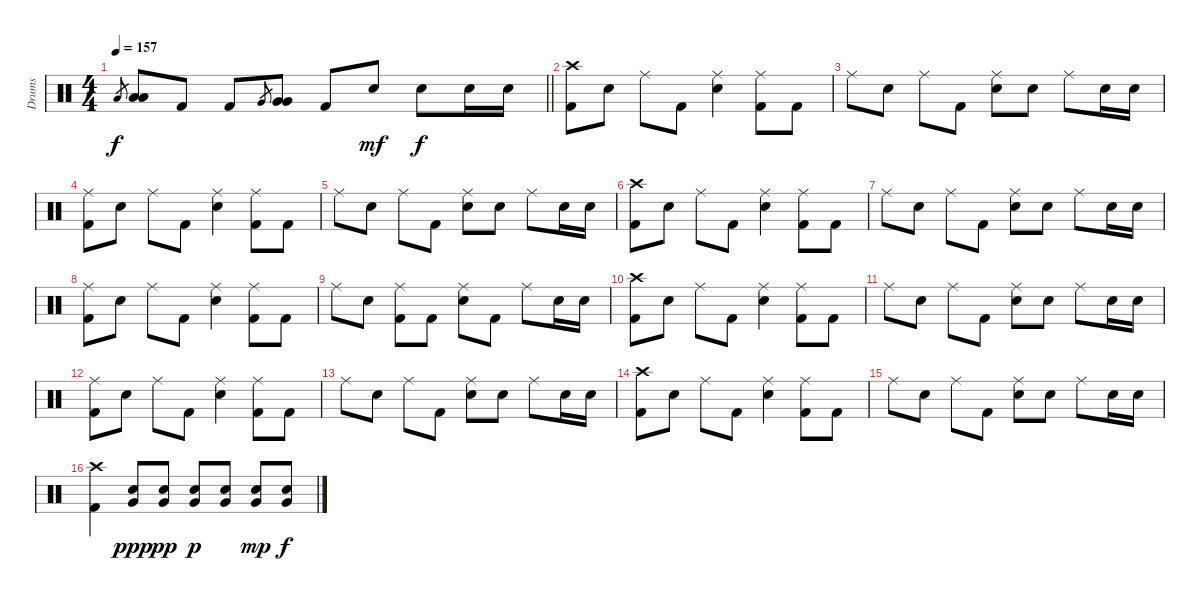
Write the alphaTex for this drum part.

\track ("Drums" "Drums") {instrument percussion}
\staff {score}
\articulation defaults
\ts (4 4)
\tempo 157
\clef neutral
\barLineRight lightlight
\ks c "Low Tom (hit)".8{gr dy f}
("Low Tom (hit)" "Low Tom (hit)").8 "Kick (hit) 2".8 "Kick (hit) 2".8 "Very Low Tom (hit)".8{gr} ("Very Low Tom (hit)" "Very Low Tom (hit)").8 "Kick (hit) 2".8 "Electric Snare (hit)".8{dy mf} "Electric Snare (hit)".8{dy f} "Electric Snare (hit)".16 "Electric Snare (hit)".16 |
\section ("" "")
("Crash high (hit)" "Kick (hit) 2").8 "Electric Snare (hit)".8 "Ride (middle)".8 "Kick (hit) 2".8 ("Ride (middle)" "Electric Snare (hit)").4 ("Ride (middle)" "Kick (hit) 2").8 "Kick (hit) 2".8 |
"Ride (middle)".8 "Electric Snare (hit)".8 "Ride (middle)".8 "Kick (hit) 2".8 ("Ride (middle)" "Electric Snare (hit)").8 "Electric Snare (hit)".8 "Ride (middle)".8 "Electric Snare (hit)".16 "Electric Snare (hit)".16 |
("Ride (middle)" "Kick (hit) 2").8 "Electric Snare (hit)".8 "Ride (middle)".8 "Kick (hit) 2".8 ("Ride (middle)" "Electric Snare (hit)").4 ("Ride (middle)" "Kick (hit) 2").8 "Kick (hit) 2".8 |
"Ride (middle)".8 "Electric Snare (hit)".8 "Ride (middle)".8 "Kick (hit) 2".8 ("Ride (middle)" "Electric Snare (hit)").8 "Electric Snare (hit)".8 "Ride (middle)".8 "Electric Snare (hit)".16 "Electric Snare (hit)".16 |
("Crash high (hit)" "Kick (hit) 2").8 "Electric Snare (hit)".8 "Ride (middle)".8 "Kick (hit) 2".8 ("Ride (middle)" "Electric Snare (hit)").4 ("Ride (middle)" "Kick (hit) 2").8 "Kick (hit) 2".8 |
"Ride (middle)".8 "Electric Snare (hit)".8 "Ride (middle)".8 "Kick (hit) 2".8 ("Ride (middle)" "Electric Snare (hit)").8 "Electric Snare (hit)".8 "Ride (middle)".8 "Electric Snare (hit)".16 "Electric Snare (hit)".16 |
("Ride (middle)" "Kick (hit) 2").8 "Electric Snare (hit)".8 "Ride (middle)".8 "Kick (hit) 2".8 ("Ride (middle)" "Electric Snare (hit)").4 ("Ride (middle)" "Kick (hit) 2").8 "Kick (hit) 2".8 |
"Ride (middle)".8 "Electric Snare (hit)".8 ("Ride (middle)" "Kick (hit) 2").8 "Kick (hit) 2".8 ("Ride (middle)" "Electric Snare (hit)").8 "Kick (hit) 2".8 "Ride (middle)".8 "Electric Snare (hit)".16 "Electric Snare (hit)".16 |
("Crash high (hit)" "Kick (hit) 2").8 "Electric Snare (hit)".8 "Ride (middle)".8 "Kick (hit) 2".8 ("Ride (middle)" "Electric Snare (hit)").4 ("Ride (middle)" "Kick (hit) 2").8 "Kick (hit) 2".8 |
"Ride (middle)".8 "Electric Snare (hit)".8 "Ride (middle)".8 "Kick (hit) 2".8 ("Ride (middle)" "Electric Snare (hit)").8 "Electric Snare (hit)".8 "Ride (middle)".8 "Electric Snare (hit)".16 "Electric Snare (hit)".16 |
("Ride (middle)" "Kick (hit) 2").8 "Electric Snare (hit)".8 "Ride (middle)".8 "Kick (hit) 2".8 ("Ride (middle)" "Electric Snare (hit)").4 ("Ride (middle)" "Kick (hit) 2").8 "Kick (hit) 2".8 |
"Ride (middle)".8 "Electric Snare (hit)".8 "Ride (middle)".8 "Kick (hit) 2".8 ("Ride (middle)" "Electric Snare (hit)").8 "Electric Snare (hit)".8 "Ride (middle)".8 "Electric Snare (hit)".16 "Electric Snare (hit)".16 |
("Crash high (hit)" "Kick (hit) 2").8 "Electric Snare (hit)".8 "Ride (middle)".8 "Kick (hit) 2".8 ("Ride (middle)" "Electric Snare (hit)").4 ("Ride (middle)" "Kick (hit) 2").8 "Kick (hit) 2".8 |
"Ride (middle)".8 "Electric Snare (hit)".8 "Ride (middle)".8 "Kick (hit) 2".8 ("Ride (middle)" "Electric Snare (hit)").8 "Electric Snare (hit)".8 "Ride (middle)".8 "Electric Snare (hit)".16 "Electric Snare (hit)".16 |
("Crash high (hit)" "Kick (hit) 2").4 ("Electric Snare (hit)" "Very Low Tom (hit)").8{dy ppp} ("Electric Snare (hit)" "Very Low Tom (hit)").8{dy pp} ("Electric Snare (hit)" "Very Low Tom (hit)").8{dy p} ("Electric Snare (hit)" "Very Low Tom (hit)").8 ("Electric Snare (hit)" "Very Low Tom (hit)").8{dy mp} ("Electric Snare (hit)" "Very Low Tom (hit)").8{dy f}
